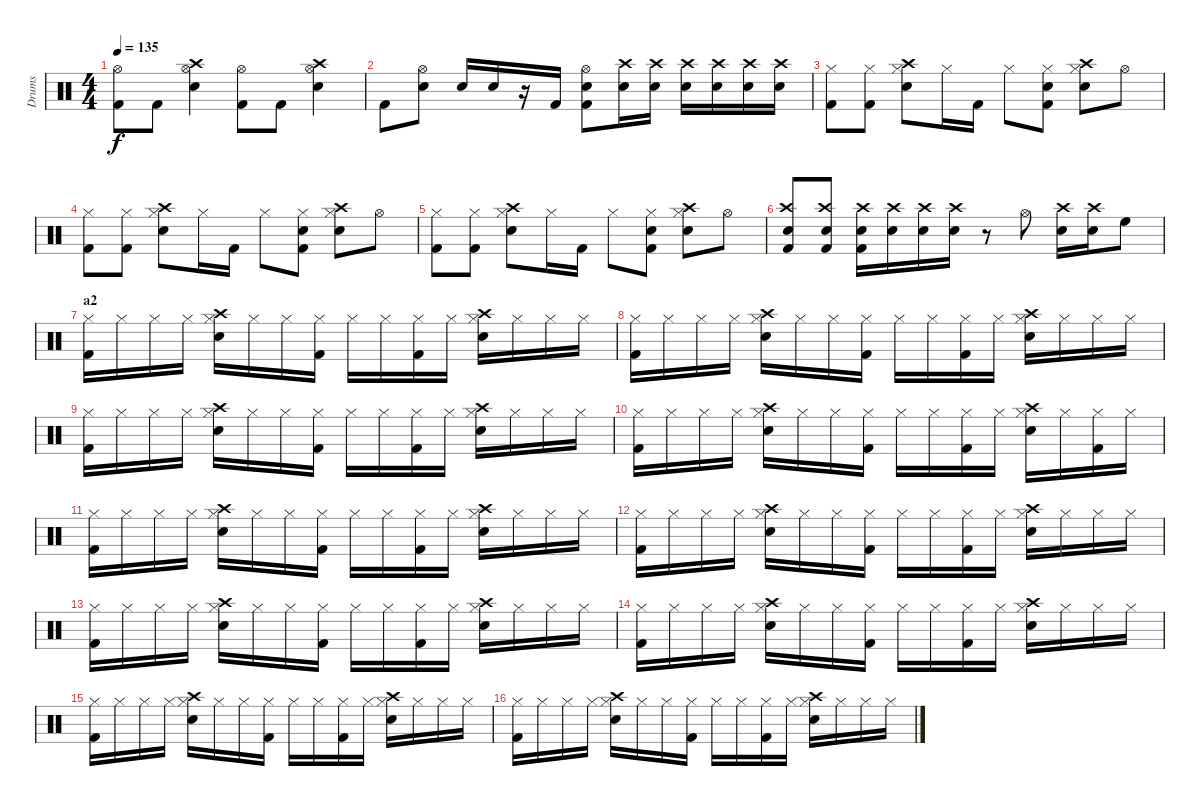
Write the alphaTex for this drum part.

\track ("Drums" "Drums") {instrument percussion}
\staff {score}
\articulation defaults
\ts (4 4)
\tempo 135
\clef neutral
\ks c
("Hi-Hat (open)" "Kick (hit) 2").8{dy f} "Kick (hit) 2".8 ("Crash high (hit)" "Hi-Hat (open)" "Snare (hit) 2").4 ("Hi-Hat (open)" "Kick (hit) 2").8 "Kick (hit) 2".8 ("Crash high (hit)" "Hi-Hat (open)" "Snare (hit) 2").4 |
"Kick (hit) 2".8 ("Hi-Hat (open)" "Snare (hit) 2").8 "Snare (hit) 2".16 "Snare (hit) 2".16 r.16 "Kick (hit) 2".16 ("Hi-Hat (open)" "Snare (hit) 2" "Kick (hit) 2").8 ("Crash high (hit)" "Snare (hit) 2").16 ("Crash high (hit)" "Snare (hit) 2").16 ("Crash high (hit)" "Snare (hit) 2").16 ("Crash high (hit)" "Snare (hit) 2").16 ("Crash high (hit)" "Snare (hit) 2").16 ("Crash high (hit)" "Snare (hit) 2").16 |
("Hi-Hat (closed)" "Kick (hit) 2").8 ("Hi-Hat (closed)" "Kick (hit) 2").8 ("Crash high (hit)" "Hi-Hat (closed)" "Snare (hit) 2").8 "Hi-Hat (closed)".16 "Kick (hit) 2".16 "Hi-Hat (closed)".8 ("Hi-Hat (closed)" "Snare (hit) 2" "Kick (hit) 2").8 ("Crash high (hit)" "Hi-Hat (closed)" "Snare (hit) 2").8 "Hi-Hat (open)".8 |
("Hi-Hat (closed)" "Kick (hit) 2").8 ("Hi-Hat (closed)" "Kick (hit) 2").8 ("Crash high (hit)" "Hi-Hat (closed)" "Snare (hit) 2").8 "Hi-Hat (closed)".16 "Kick (hit) 2".16 "Hi-Hat (closed)".8 ("Hi-Hat (closed)" "Snare (hit) 2" "Kick (hit) 2").8 ("Crash high (hit)" "Hi-Hat (closed)" "Snare (hit) 2").8 "Hi-Hat (open)".8 |
("Hi-Hat (closed)" "Kick (hit) 2").8 ("Hi-Hat (closed)" "Kick (hit) 2").8 ("Crash high (hit)" "Hi-Hat (closed)" "Snare (hit) 2").8 "Hi-Hat (closed)".16 "Kick (hit) 2".16 "Hi-Hat (closed)".8 ("Hi-Hat (closed)" "Snare (hit) 2" "Kick (hit) 2").8 ("Crash high (hit)" "Hi-Hat (closed)" "Snare (hit) 2").8 "Hi-Hat (open)".8 |
("Crash high (hit)" "Snare (hit) 2" "Kick (hit) 2").8 ("Crash high (hit)" "Snare (hit) 2" "Kick (hit) 2").8 ("Crash high (hit)" "Snare (hit) 2" "Kick (hit) 2").16 ("Crash high (hit)" "Snare (hit) 2").16 ("Crash high (hit)" "Snare (hit) 2").16 ("Crash high (hit)" "Snare (hit) 2").16 r.8 "Hi-Hat (open)".8 ("Crash high (hit)" "Snare (hit) 2").16 ("Crash high (hit)" "Snare (hit) 2").16 "High Floor Tom (hit)".8 |
\section ("" "a2")
("Hi-Hat (closed)" "Kick (hit) 2").16 "Hi-Hat (closed)".16 "Hi-Hat (closed)".16 "Hi-Hat (closed)".16 ("Crash high (hit)" "Hi-Hat (closed)" "Snare (hit) 2").16 "Hi-Hat (closed)".16 "Hi-Hat (closed)".16 ("Hi-Hat (closed)" "Kick (hit) 2").16 "Hi-Hat (closed)".16 "Hi-Hat (closed)".16 ("Hi-Hat (closed)" "Kick (hit) 2").16 "Hi-Hat (closed)".16 ("Crash high (hit)" "Hi-Hat (closed)" "Snare (hit) 2").16 "Hi-Hat (closed)".16 "Hi-Hat (closed)".16 "Hi-Hat (closed)".16 |
("Hi-Hat (closed)" "Kick (hit) 2").16 "Hi-Hat (closed)".16 "Hi-Hat (closed)".16 "Hi-Hat (closed)".16 ("Crash high (hit)" "Hi-Hat (closed)" "Snare (hit) 2").16 "Hi-Hat (closed)".16 "Hi-Hat (closed)".16 ("Hi-Hat (closed)" "Kick (hit) 2").16 "Hi-Hat (closed)".16 "Hi-Hat (closed)".16 ("Hi-Hat (closed)" "Kick (hit) 2").16 "Hi-Hat (closed)".16 ("Crash high (hit)" "Hi-Hat (closed)" "Snare (hit) 2").16 "Hi-Hat (closed)".16 "Hi-Hat (closed)".16 "Hi-Hat (closed)".16 |
("Hi-Hat (closed)" "Kick (hit) 2").16 "Hi-Hat (closed)".16 "Hi-Hat (closed)".16 "Hi-Hat (closed)".16 ("Crash high (hit)" "Hi-Hat (closed)" "Snare (hit) 2").16 "Hi-Hat (closed)".16 "Hi-Hat (closed)".16 ("Hi-Hat (closed)" "Kick (hit) 2").16 "Hi-Hat (closed)".16 "Hi-Hat (closed)".16 ("Hi-Hat (closed)" "Kick (hit) 2").16 "Hi-Hat (closed)".16 ("Crash high (hit)" "Hi-Hat (closed)" "Snare (hit) 2").16 "Hi-Hat (closed)".16 "Hi-Hat (closed)".16 "Hi-Hat (closed)".16 |
("Hi-Hat (closed)" "Kick (hit) 2").16 "Hi-Hat (closed)".16 "Hi-Hat (closed)".16 "Hi-Hat (closed)".16 ("Crash high (hit)" "Hi-Hat (closed)" "Snare (hit) 2").16 "Hi-Hat (closed)".16 "Hi-Hat (closed)".16 ("Hi-Hat (closed)" "Kick (hit) 2").16 "Hi-Hat (closed)".16 "Hi-Hat (closed)".16 ("Hi-Hat (closed)" "Kick (hit) 2").16 "Hi-Hat (closed)".16 ("Crash high (hit)" "Hi-Hat (closed)" "Snare (hit) 2").16 "Hi-Hat (closed)".16 ("Hi-Hat (closed)" "Kick (hit) 2").16 "Hi-Hat (closed)".16 |
("Hi-Hat (closed)" "Kick (hit) 2").16 "Hi-Hat (closed)".16 "Hi-Hat (closed)".16 "Hi-Hat (closed)".16 ("Crash high (hit)" "Hi-Hat (closed)" "Snare (hit) 2").16 "Hi-Hat (closed)".16 "Hi-Hat (closed)".16 ("Hi-Hat (closed)" "Kick (hit) 2").16 "Hi-Hat (closed)".16 "Hi-Hat (closed)".16 ("Hi-Hat (closed)" "Kick (hit) 2").16 "Hi-Hat (closed)".16 ("Crash high (hit)" "Hi-Hat (closed)" "Snare (hit) 2").16 "Hi-Hat (closed)".16 "Hi-Hat (closed)".16 "Hi-Hat (closed)".16 |
("Hi-Hat (closed)" "Kick (hit) 2").16 "Hi-Hat (closed)".16 "Hi-Hat (closed)".16 "Hi-Hat (closed)".16 ("Crash high (hit)" "Hi-Hat (closed)" "Snare (hit) 2").16 "Hi-Hat (closed)".16 "Hi-Hat (closed)".16 ("Hi-Hat (closed)" "Kick (hit) 2").16 "Hi-Hat (closed)".16 "Hi-Hat (closed)".16 ("Hi-Hat (closed)" "Kick (hit) 2").16 "Hi-Hat (closed)".16 ("Crash high (hit)" "Hi-Hat (closed)" "Snare (hit) 2").16 "Hi-Hat (closed)".16 "Hi-Hat (closed)".16 "Hi-Hat (closed)".16 |
("Hi-Hat (closed)" "Kick (hit) 2").16 "Hi-Hat (closed)".16 "Hi-Hat (closed)".16 "Hi-Hat (closed)".16 ("Crash high (hit)" "Hi-Hat (closed)" "Snare (hit) 2").16 "Hi-Hat (closed)".16 "Hi-Hat (closed)".16 ("Hi-Hat (closed)" "Kick (hit) 2").16 "Hi-Hat (closed)".16 "Hi-Hat (closed)".16 ("Hi-Hat (closed)" "Kick (hit) 2").16 "Hi-Hat (closed)".16 ("Crash high (hit)" "Hi-Hat (closed)" "Snare (hit) 2").16 "Hi-Hat (closed)".16 "Hi-Hat (closed)".16 "Hi-Hat (closed)".16 |
("Hi-Hat (closed)" "Kick (hit) 2").16 "Hi-Hat (closed)".16 "Hi-Hat (closed)".16 "Hi-Hat (closed)".16 ("Crash high (hit)" "Hi-Hat (closed)" "Snare (hit) 2").16 "Hi-Hat (closed)".16 "Hi-Hat (closed)".16 ("Hi-Hat (closed)" "Kick (hit) 2").16 "Hi-Hat (closed)".16 "Hi-Hat (closed)".16 ("Hi-Hat (closed)" "Kick (hit) 2").16 "Hi-Hat (closed)".16 ("Crash high (hit)" "Hi-Hat (closed)" "Snare (hit) 2").16 "Hi-Hat (closed)".16 "Hi-Hat (closed)".16 "Hi-Hat (closed)".16 |
("Hi-Hat (closed)" "Kick (hit) 2").16 "Hi-Hat (closed)".16 "Hi-Hat (closed)".16 "Hi-Hat (closed)".16 ("Crash high (hit)" "Hi-Hat (closed)" "Snare (hit) 2").16 "Hi-Hat (closed)".16 "Hi-Hat (closed)".16 ("Hi-Hat (closed)" "Kick (hit) 2").16 "Hi-Hat (closed)".16 "Hi-Hat (closed)".16 ("Hi-Hat (closed)" "Kick (hit) 2").16 "Hi-Hat (closed)".16 ("Crash high (hit)" "Hi-Hat (closed)" "Snare (hit) 2").16 "Hi-Hat (closed)".16 "Hi-Hat (closed)".16 "Hi-Hat (closed)".16 |
("Hi-Hat (closed)" "Kick (hit) 2").16 "Hi-Hat (closed)".16 "Hi-Hat (closed)".16 "Hi-Hat (closed)".16 ("Crash high (hit)" "Hi-Hat (closed)" "Snare (hit) 2").16 "Hi-Hat (closed)".16 "Hi-Hat (closed)".16 ("Hi-Hat (closed)" "Kick (hit) 2").16 "Hi-Hat (closed)".16 "Hi-Hat (closed)".16 ("Hi-Hat (closed)" "Kick (hit) 2").16 "Hi-Hat (closed)".16 ("Crash high (hit)" "Hi-Hat (closed)" "Snare (hit) 2").16 "Hi-Hat (closed)".16 "Hi-Hat (closed)".16 "Hi-Hat (closed)".16
